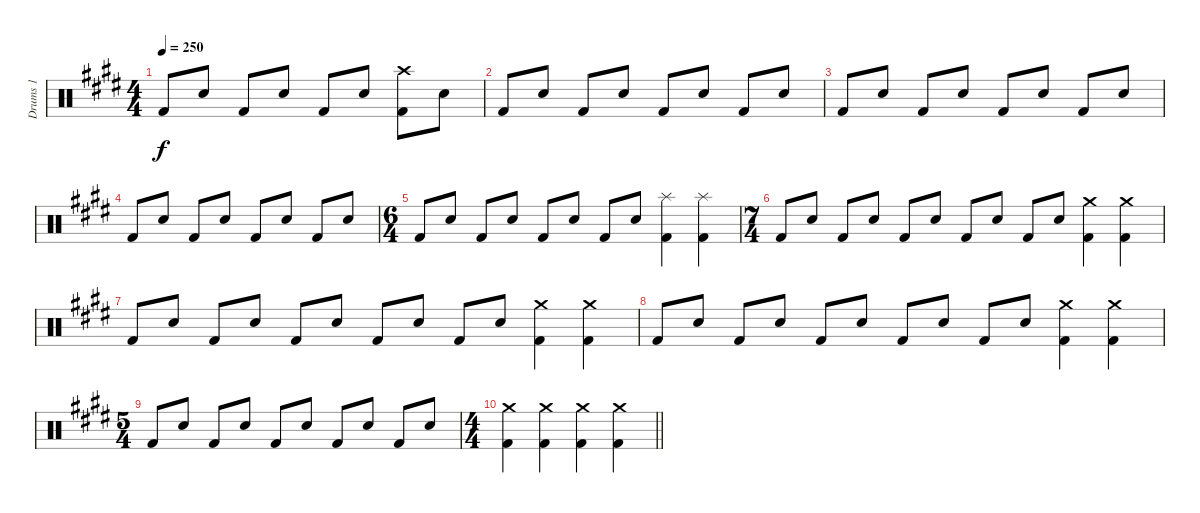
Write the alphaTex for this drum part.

\track ("Drums 1" "Drums 1") {instrument percussion}
\staff {score}
\articulation defaults
\ts (4 4)
\tempo 250
\clef neutral
\ks c#minor "Kick (hit) 2".8{dy f} "Electric Snare (hit)".8 "Kick (hit) 2".8 "Electric Snare (hit)".8 "Kick (hit) 2".8 "Electric Snare (hit)".8
("Crash high (hit)" "Kick (hit) 2").8 "Electric Snare (hit)".8 |
"Kick (hit) 2".8 "Electric Snare (hit)".8 "Kick (hit) 2".8 "Electric Snare (hit)".8 "Kick (hit) 2".8 "Electric Snare (hit)".8 "Kick (hit) 2".8 "Electric Snare (hit)".8 |
"Kick (hit) 2".8 "Electric Snare (hit)".8 "Kick (hit) 2".8 "Electric Snare (hit)".8 "Kick (hit) 2".8 "Electric Snare (hit)".8 "Kick (hit) 2".8 "Electric Snare (hit)".8 |
"Kick (hit) 2".8 "Electric Snare (hit)".8 "Kick (hit) 2".8 "Electric Snare (hit)".8 "Kick (hit) 2".8 "Electric Snare (hit)".8 "Kick (hit) 2".8 "Electric Snare (hit)".8 |
\ts (6 4)
"Kick (hit) 2".8 "Electric Snare (hit)".8 "Kick (hit) 2".8 "Electric Snare (hit)".8 "Kick (hit) 2".8 "Electric Snare (hit)".8 "Kick (hit) 2".8 "Electric Snare (hit)".8 ("Splash (hit)" "Kick (hit) 2").4 ("Splash (hit)" "Kick (hit) 2").4 |
\ts (7 4)
"Kick (hit) 2".8 "Electric Snare (hit)".8 "Kick (hit) 2".8 "Electric Snare (hit)".8 "Kick (hit) 2".8 "Electric Snare (hit)".8 "Kick (hit) 2".8 "Electric Snare (hit)".8 "Kick (hit) 2".8 "Electric Snare (hit)".8 ("Crash medium (hit)" "Kick (hit) 2").4 ("Crash medium (hit)" "Kick (hit) 2").4 |
"Kick (hit) 2".8 "Electric Snare (hit)".8 "Kick (hit) 2".8 "Electric Snare (hit)".8 "Kick (hit) 2".8 "Electric Snare (hit)".8 "Kick (hit) 2".8 "Electric Snare (hit)".8 "Kick (hit) 2".8 "Electric Snare (hit)".8 ("Crash medium (hit)" "Kick (hit) 2").4 ("Crash medium (hit)" "Kick (hit) 2").4 |
"Kick (hit) 2".8 "Electric Snare (hit)".8 "Kick (hit) 2".8 "Electric Snare (hit)".8 "Kick (hit) 2".8 "Electric Snare (hit)".8 "Kick (hit) 2".8 "Electric Snare (hit)".8 "Kick (hit) 2".8 "Electric Snare (hit)".8 ("Crash medium (hit)" "Kick (hit) 2").4 ("Crash medium (hit)" "Kick (hit) 2").4 |
\ts (5 4)
"Kick (hit) 2".8 "Electric Snare (hit)".8 "Kick (hit) 2".8 "Electric Snare (hit)".8 "Kick (hit) 2".8 "Electric Snare (hit)".8 "Kick (hit) 2".8 "Electric Snare (hit)".8 "Kick (hit) 2".8 "Electric Snare (hit)".8 |
\ts (4 4)
\barLineRight lightlight
("Crash medium (hit)" "Kick (hit) 2").4 ("Crash medium (hit)" "Kick (hit) 2").4 ("Crash medium (hit)" "Kick (hit) 2").4 ("Crash medium (hit)" "Kick (hit) 2").4
